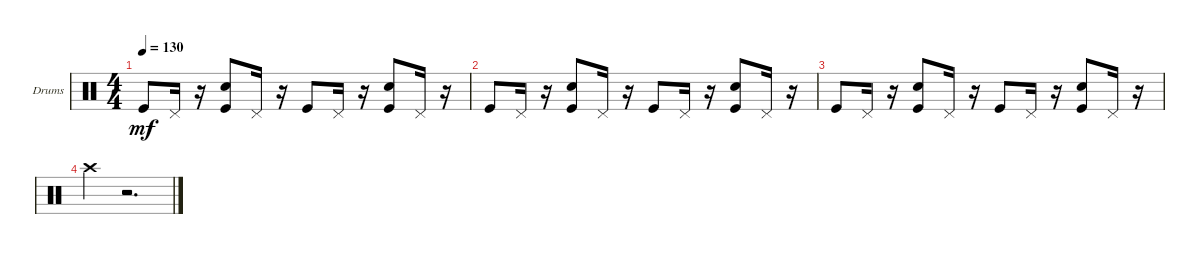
\bracketExtendMode groupsimilarinstruments
\firstSystemTrackNameOrientation horizontal
\otherSystemsTrackNameOrientation horizontal
\track ("MIDI Drums" "Drums") {instrument percussion}
\staff {score}
\articulation defaults
\ts (4 4)
\tempo 130
\clef neutral
\ks c "Kick (hit)".8{dy mf} "Pedal Hi-Hat (hit)".16
r.16 ("Snare (hit) 2" "Kick (hit)").8 "Pedal Hi-Hat (hit)".16 r.16 "Kick (hit)".8 "Pedal Hi-Hat (hit)".16 r.16 ("Kick (hit)" "Snare (hit) 2").8 "Pedal Hi-Hat (hit)".16 r.16 |
"Kick (hit)".8 "Pedal Hi-Hat (hit)".16 r.16 ("Snare (hit) 2" "Kick (hit)").8 "Pedal Hi-Hat (hit)".16 r.16 "Kick (hit)".8 "Pedal Hi-Hat (hit)".16 r.16 ("Snare (hit) 2" "Kick (hit)").8 "Pedal Hi-Hat (hit)".16 r.16 |
"Kick (hit)".8 "Pedal Hi-Hat (hit)".16 r.16 ("Snare (hit) 2" "Kick (hit)").8 "Pedal Hi-Hat (hit)".16 r.16 "Kick (hit)".8 "Pedal Hi-Hat (hit)".16 r.16 ("Kick (hit)" "Snare (hit) 2").8 "Pedal Hi-Hat (hit)".16 r.16 |
"Crash high (hit)".4 r.2{d}
